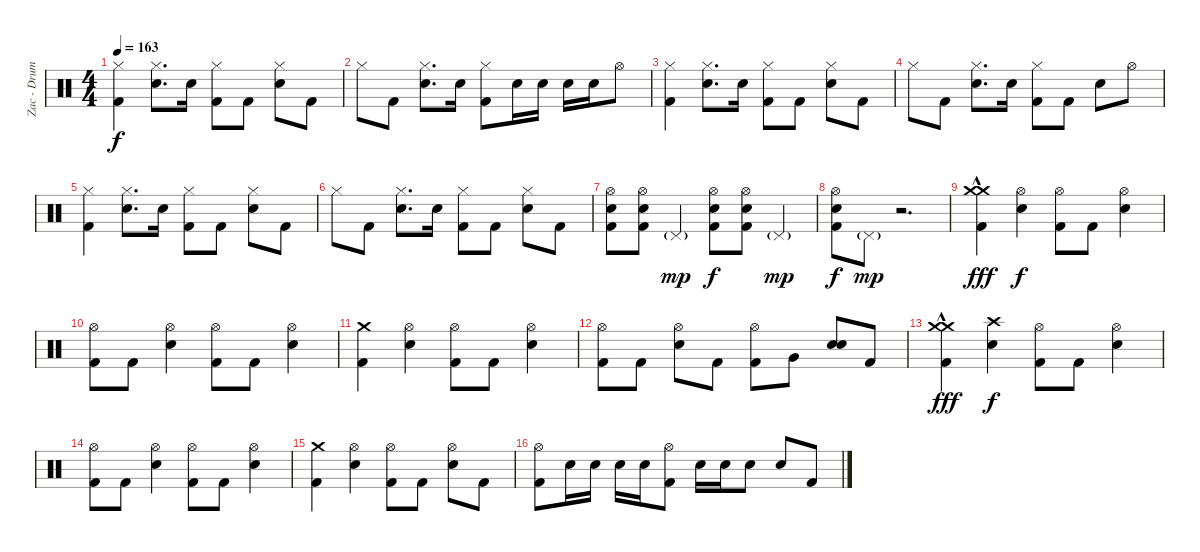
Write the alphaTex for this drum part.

\track ("Zac - Drums" "Zac - Drum") {instrument percussion}
\staff {score}
\articulation defaults
\ts (4 4)
\tempo 163
\clef neutral
\ks c
("Hi-Hat (closed)" "Kick (hit) 2").4{dy f} ("Hi-Hat (closed)" "Snare (hit) 2").8{d} "Snare (hit) 2".16 ("Hi-Hat (closed)" "Kick (hit) 2").8 "Kick (hit) 2".8 ("Hi-Hat (closed)" "Snare (hit) 2").8 "Kick (hit) 2".8 |
"Hi-Hat (closed)".8 "Kick (hit) 2".8 ("Hi-Hat (closed)" "Snare (hit) 2").8{d} "Snare (hit) 2".16 ("Hi-Hat (closed)" "Kick (hit) 2").8 "Snare (hit) 2".16 "Snare (hit) 2".16 "Snare (hit) 2".16 "Snare (hit) 2".16 "Hi-Hat (open)".8 |
("Hi-Hat (closed)" "Kick (hit) 2").4 ("Hi-Hat (closed)" "Snare (hit) 2").8{d} "Snare (hit) 2".16 ("Hi-Hat (closed)" "Kick (hit) 2").8 "Kick (hit) 2".8 ("Hi-Hat (closed)" "Snare (hit) 2").8 "Kick (hit) 2".8 |
"Hi-Hat (closed)".8 "Kick (hit) 2".8 ("Hi-Hat (closed)" "Snare (hit) 2").8{d} "Snare (hit) 2".16 ("Hi-Hat (closed)" "Kick (hit) 2").8 "Kick (hit) 2".8 "Snare (hit) 2".8 "Hi-Hat (open)".8 |
("Hi-Hat (closed)" "Kick (hit) 2").4 ("Hi-Hat (closed)" "Snare (hit) 2").8{d} "Snare (hit) 2".16 ("Hi-Hat (closed)" "Kick (hit) 2").8 "Kick (hit) 2".8 ("Hi-Hat (closed)" "Snare (hit) 2").8 "Kick (hit) 2".8 |
"Hi-Hat (closed)".8 "Kick (hit) 2".8 ("Hi-Hat (closed)" "Snare (hit) 2").8{d} "Snare (hit) 2".16 ("Hi-Hat (closed)" "Kick (hit) 2").8 "Kick (hit) 2".8 ("Hi-Hat (closed)" "Snare (hit) 2").8 "Kick (hit) 2".8 |
("Hi-Hat (open)" "Snare (hit) 2" "Kick (hit) 2").8 ("Hi-Hat (open)" "Snare (hit) 2" "Kick (hit) 2").8 "Pedal Hi-Hat (hit)"{g}.4{dy mp} ("Hi-Hat (open)" "Snare (hit) 2" "Kick (hit) 2").8{dy f} ("Hi-Hat (open)" "Snare (hit) 2" "Kick (hit) 2").8 "Pedal Hi-Hat (hit)"{g}.4{dy mp} |
("Hi-Hat (open)" "Snare (hit) 2" "Kick (hit) 2").8{dy f} "Pedal Hi-Hat (hit)"{g}.8{dy mp} r.2{d} |
("Crash medium (hit)"{hac} "Crash medium (hit)" "Kick (hit) 2").4{dy fff} ("Hi-Hat (open)" "Snare (hit) 2").4{dy f} ("Hi-Hat (open)" "Kick (hit) 2").8 "Kick (hit) 2".8 ("Hi-Hat (open)" "Snare (hit) 2").4 |
("Hi-Hat (open)" "Kick (hit) 2").8 "Kick (hit) 2".8 ("Hi-Hat (open)" "Snare (hit) 2").4 ("Hi-Hat (open)" "Kick (hit) 2").8 "Kick (hit) 2".8 ("Hi-Hat (open)" "Snare (hit) 2").4 |
("Crash medium (hit)" "Kick (hit) 2").4 ("Hi-Hat (open)" "Snare (hit) 2").4 ("Hi-Hat (open)" "Kick (hit) 2").8 "Kick (hit) 2".8 ("Hi-Hat (open)" "Snare (hit) 2").4 |
("Hi-Hat (open)" "Kick (hit) 2").8 "Kick (hit) 2".8 ("Hi-Hat (open)" "Snare (hit) 2").8 "Kick (hit) 2".8 ("Hi-Hat (open)" "Kick (hit) 2").8 "Very Low Tom (hit)".8 ("Snare (hit) 2" "Snare (hit) 2").8 "Kick (hit) 2".8 |
("Crash medium (hit)"{hac} "Crash medium (hit)" "Kick (hit) 2").4{dy fff} ("Crash high (hit)" "Snare (hit) 2").4{dy f} ("Hi-Hat (open)" "Kick (hit) 2").8 "Kick (hit) 2".8 ("Hi-Hat (open)" "Snare (hit) 2").4 |
("Hi-Hat (open)" "Kick (hit) 2").8 "Kick (hit) 2".8 ("Hi-Hat (open)" "Snare (hit) 2").4 ("Hi-Hat (open)" "Kick (hit) 2").8 "Kick (hit) 2".8 ("Hi-Hat (open)" "Snare (hit) 2").4 |
("Crash medium (hit)" "Kick (hit) 2").4 ("Hi-Hat (open)" "Snare (hit) 2").4 ("Hi-Hat (open)" "Kick (hit) 2").8 "Kick (hit) 2".8 ("Hi-Hat (open)" "Snare (hit) 2").8 "Kick (hit) 2".8 |
("Hi-Hat (open)" "Kick (hit) 2").8 "Snare (hit) 2".16 "Snare (hit) 2".16 "Snare (hit) 2".16 "Snare (hit) 2".16 ("Hi-Hat (open)" "Kick (hit) 2").8 "Snare (hit) 2".16 "Snare (hit) 2".16 "Snare (hit) 2".8 "Snare (hit) 2".8 "Kick (hit) 2".8
